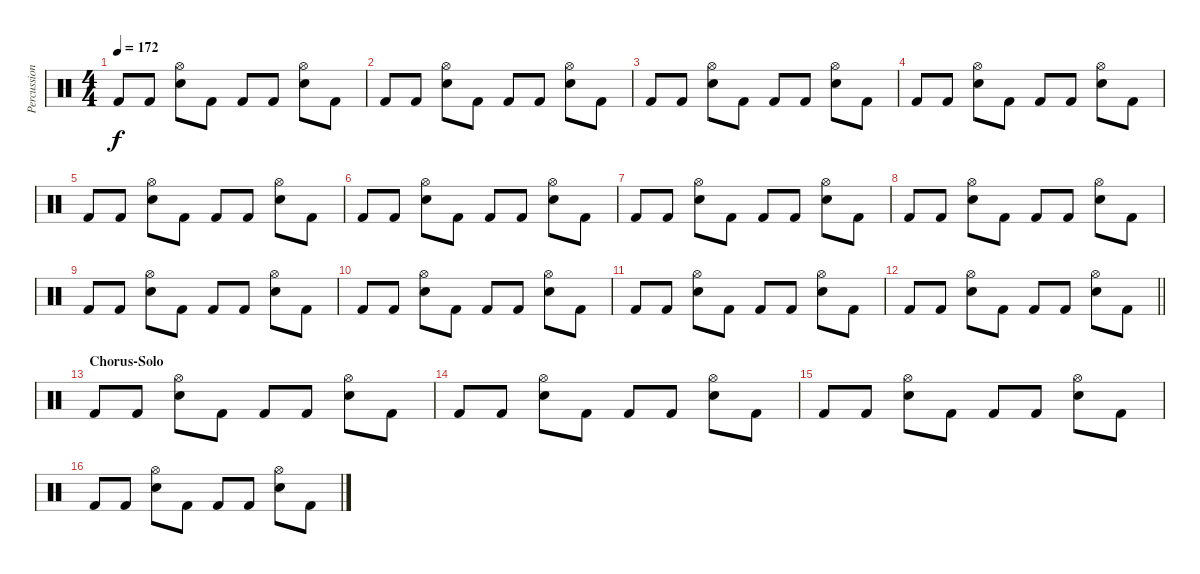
\track ("Percussion" "Percussion") {instrument percussion}
\staff {score}
\articulation defaults
\ts (4 4)
\tempo 172
\clef neutral
\ks c "Kick (hit) 2".8{dy f} "Kick (hit) 2".8
("Hi-Hat (open)" "Electric Snare (hit)").8 "Kick (hit) 2".8 "Kick (hit) 2".8 "Kick (hit) 2".8 ("Hi-Hat (open)" "Electric Snare (hit)").8 "Kick (hit) 2".8 |
"Kick (hit) 2".8 "Kick (hit) 2".8 ("Hi-Hat (open)" "Electric Snare (hit)").8 "Kick (hit) 2".8 "Kick (hit) 2".8 "Kick (hit) 2".8 ("Hi-Hat (open)" "Electric Snare (hit)").8 "Kick (hit) 2".8 |
"Kick (hit) 2".8 "Kick (hit) 2".8 ("Hi-Hat (open)" "Electric Snare (hit)").8 "Kick (hit) 2".8 "Kick (hit) 2".8 "Kick (hit) 2".8 ("Hi-Hat (open)" "Electric Snare (hit)").8 "Kick (hit) 2".8 |
"Kick (hit) 2".8 "Kick (hit) 2".8 ("Hi-Hat (open)" "Electric Snare (hit)").8 "Kick (hit) 2".8 "Kick (hit) 2".8 "Kick (hit) 2".8 ("Hi-Hat (open)" "Electric Snare (hit)").8 "Kick (hit) 2".8 |
"Kick (hit) 2".8 "Kick (hit) 2".8 ("Hi-Hat (open)" "Electric Snare (hit)").8 "Kick (hit) 2".8 "Kick (hit) 2".8 "Kick (hit) 2".8 ("Hi-Hat (open)" "Electric Snare (hit)").8 "Kick (hit) 2".8 |
"Kick (hit) 2".8 "Kick (hit) 2".8 ("Hi-Hat (open)" "Electric Snare (hit)").8 "Kick (hit) 2".8 "Kick (hit) 2".8 "Kick (hit) 2".8 ("Hi-Hat (open)" "Electric Snare (hit)").8 "Kick (hit) 2".8 |
"Kick (hit) 2".8 "Kick (hit) 2".8 ("Hi-Hat (open)" "Electric Snare (hit)").8 "Kick (hit) 2".8 "Kick (hit) 2".8 "Kick (hit) 2".8 ("Hi-Hat (open)" "Electric Snare (hit)").8 "Kick (hit) 2".8 |
"Kick (hit) 2".8 "Kick (hit) 2".8 ("Hi-Hat (open)" "Electric Snare (hit)").8 "Kick (hit) 2".8 "Kick (hit) 2".8 "Kick (hit) 2".8 ("Hi-Hat (open)" "Electric Snare (hit)").8 "Kick (hit) 2".8 |
"Kick (hit) 2".8 "Kick (hit) 2".8 ("Hi-Hat (open)" "Electric Snare (hit)").8 "Kick (hit) 2".8 "Kick (hit) 2".8 "Kick (hit) 2".8 ("Hi-Hat (open)" "Electric Snare (hit)").8 "Kick (hit) 2".8 |
"Kick (hit) 2".8 "Kick (hit) 2".8 ("Hi-Hat (open)" "Electric Snare (hit)").8 "Kick (hit) 2".8 "Kick (hit) 2".8 "Kick (hit) 2".8 ("Hi-Hat (open)" "Electric Snare (hit)").8 "Kick (hit) 2".8 |
"Kick (hit) 2".8 "Kick (hit) 2".8 ("Hi-Hat (open)" "Electric Snare (hit)").8 "Kick (hit) 2".8 "Kick (hit) 2".8 "Kick (hit) 2".8 ("Hi-Hat (open)" "Electric Snare (hit)").8 "Kick (hit) 2".8 |
\barLineRight lightlight "Kick (hit) 2".8 "Kick (hit) 2".8
("Hi-Hat (open)" "Electric Snare (hit)").8 "Kick (hit) 2".8 "Kick (hit) 2".8 "Kick (hit) 2".8 ("Hi-Hat (open)" "Electric Snare (hit)").8 "Kick (hit) 2".8 |
\section ("" "Chorus-Solo")
"Kick (hit) 2".8 "Kick (hit) 2".8 ("Hi-Hat (open)" "Electric Snare (hit)").8 "Kick (hit) 2".8 "Kick (hit) 2".8 "Kick (hit) 2".8 ("Hi-Hat (open)" "Electric Snare (hit)").8 "Kick (hit) 2".8 |
"Kick (hit) 2".8 "Kick (hit) 2".8 ("Hi-Hat (open)" "Electric Snare (hit)").8 "Kick (hit) 2".8 "Kick (hit) 2".8 "Kick (hit) 2".8 ("Hi-Hat (open)" "Electric Snare (hit)").8 "Kick (hit) 2".8 |
"Kick (hit) 2".8 "Kick (hit) 2".8 ("Hi-Hat (open)" "Electric Snare (hit)").8 "Kick (hit) 2".8 "Kick (hit) 2".8 "Kick (hit) 2".8 ("Hi-Hat (open)" "Electric Snare (hit)").8 "Kick (hit) 2".8 |
"Kick (hit) 2".8 "Kick (hit) 2".8 ("Hi-Hat (open)" "Electric Snare (hit)").8 "Kick (hit) 2".8 "Kick (hit) 2".8 "Kick (hit) 2".8 ("Hi-Hat (open)" "Electric Snare (hit)").8 "Kick (hit) 2".8
